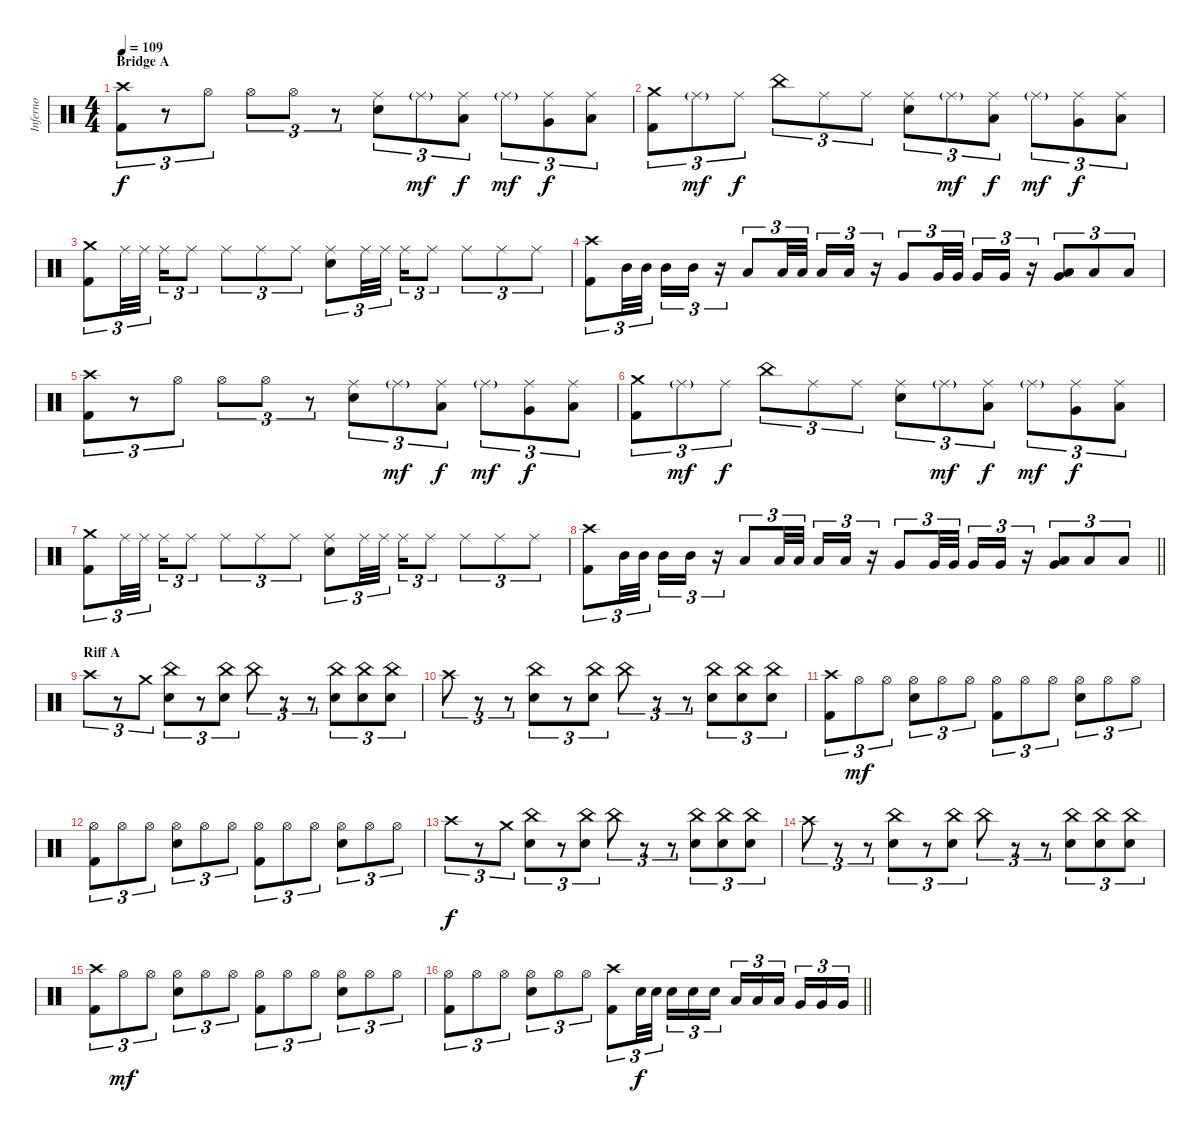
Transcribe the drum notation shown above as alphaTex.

\track ("Inferno" "Inferno") {instrument percussion}
\staff {score}
\articulation defaults
\ts (4 4)
\section ("" "Bridge A")
\tempo 109
\clef neutral
\ks c
("Crash high (hit)" "Kick (hit) 2").8{tu (3 2) dy f} r.8{tu (3 2)} "Hi-Hat (open)".8{tu (3 2)} "Hi-Hat (open)".8{tu (3 2)} "Hi-Hat (open)".8{tu (3 2)} r.8{tu (3 2)} ("Ride (middle)" "Snare (hit) 2").8{tu (3 2)} "Ride (middle)"{g}.8{tu (3 2) dy mf} ("Ride (middle)" "Low Tom (hit)").8{tu (3 2) dy f} "Ride (middle)"{g}.8{tu (3 2) dy mf} ("Ride (middle)" "Very Low Tom (hit)").8{tu (3 2) dy f} ("Ride (middle)" "Low Floor Tom (hit)").8{tu (3 2)} |
("Crash medium (hit)" "Kick (hit) 2").8{tu (3 2)} "Ride (middle)"{g}.8{tu (3 2) dy mf} "Ride (middle)".8{tu (3 2) dy f} "China (hit)".8{tu (3 2)} "Ride (middle)".8{tu (3 2)} "Ride (middle)".8{tu (3 2)} ("Ride (middle)" "Snare (hit) 2").8{tu (3 2)} "Ride (middle)"{g}.8{tu (3 2) dy mf} ("Ride (middle)" "Low Tom (hit)").8{tu (3 2) dy f} "Ride (middle)"{g}.8{tu (3 2) dy mf} ("Ride (middle)" "Very Low Tom (hit)").8{tu (3 2) dy f} ("Ride (middle)" "Low Floor Tom (hit)").8{tu (3 2)} |
("Crash medium (hit)" "Kick (hit) 2").8{tu (3 2)} "Ride (middle)".32{tu (3 2)} "Ride (middle)".32{tu (3 2) beam splitsecondary} "Ride (middle)".16{tu (3 2)} "Ride (middle)".8{tu (3 2)} "Ride (middle)".8{tu (3 2)} "Ride (middle)".8{tu (3 2)} "Ride (middle)".8{tu (3 2)} ("Ride (middle)" "Snare (hit) 2").8{tu (3 2)} "Ride (middle)".32{tu (3 2)} "Ride (middle)".32{tu (3 2) beam splitsecondary} "Ride (middle)".16{tu (3 2)} "Ride (middle)".8{tu (3 2)} "Ride (middle)".8{tu (3 2)} "Ride (middle)".8{tu (3 2)} "Ride (middle)".8{tu (3 2)} |
("Crash high (hit)" "Kick (hit) 2").8{tu (3 2)} "Mid Tom (hit)".32{tu (3 2)} "Mid Tom (hit)".32{tu (3 2) beam splitsecondary} "Mid Tom (hit)".16{tu (3 2)} "Mid Tom (hit)".16{tu (3 2)} r.16{tu (3 2)} "Low Tom (hit)".8{tu (3 2)} "Low Tom (hit)".32{tu (3 2)} "Low Tom (hit)".32{tu (3 2) beam splitsecondary} "Low Tom (hit)".16{tu (3 2)} "Low Tom (hit)".16{tu (3 2)} r.16{tu (3 2)} "Very Low Tom (hit)".8{tu (3 2)} "Very Low Tom (hit)".32{tu (3 2)} "Very Low Tom (hit)".32{tu (3 2) beam splitsecondary} "Very Low Tom (hit)".16{tu (3 2)} "Very Low Tom (hit)".16{tu (3 2)} r.16{tu (3 2)} ("Very Low Tom (hit)" "Low Floor Tom (hit)").8{tu (3 2)} "Low Floor Tom (hit)".8{tu (3 2)} "Low Floor Tom (hit)".8{tu (3 2)} |
("Crash high (hit)" "Kick (hit) 2").8{tu (3 2)} r.8{tu (3 2)} "Hi-Hat (open)".8{tu (3 2)} "Hi-Hat (open)".8{tu (3 2)} "Hi-Hat (open)".8{tu (3 2)} r.8{tu (3 2)} ("Ride (middle)" "Snare (hit) 2").8{tu (3 2)} "Ride (middle)"{g}.8{tu (3 2) dy mf} ("Ride (middle)" "Low Tom (hit)").8{tu (3 2) dy f} "Ride (middle)"{g}.8{tu (3 2) dy mf} ("Ride (middle)" "Very Low Tom (hit)").8{tu (3 2) dy f} ("Ride (middle)" "Low Floor Tom (hit)").8{tu (3 2)} |
("Crash medium (hit)" "Kick (hit) 2").8{tu (3 2)} "Ride (middle)"{g}.8{tu (3 2) dy mf} "Ride (middle)".8{tu (3 2) dy f} "China (hit)".8{tu (3 2)} "Ride (middle)".8{tu (3 2)} "Ride (middle)".8{tu (3 2)} ("Ride (middle)" "Snare (hit) 2").8{tu (3 2)} "Ride (middle)"{g}.8{tu (3 2) dy mf} ("Ride (middle)" "Low Tom (hit)").8{tu (3 2) dy f} "Ride (middle)"{g}.8{tu (3 2) dy mf} ("Ride (middle)" "Very Low Tom (hit)").8{tu (3 2) dy f} ("Ride (middle)" "Low Floor Tom (hit)").8{tu (3 2)} |
("Crash medium (hit)" "Kick (hit) 2").8{tu (3 2)} "Ride (middle)".32{tu (3 2)} "Ride (middle)".32{tu (3 2) beam splitsecondary} "Ride (middle)".16{tu (3 2)} "Ride (middle)".8{tu (3 2)} "Ride (middle)".8{tu (3 2)} "Ride (middle)".8{tu (3 2)} "Ride (middle)".8{tu (3 2)} ("Ride (middle)" "Snare (hit) 2").8{tu (3 2)} "Ride (middle)".32{tu (3 2)} "Ride (middle)".32{tu (3 2) beam splitsecondary} "Ride (middle)".16{tu (3 2)} "Ride (middle)".8{tu (3 2)} "Ride (middle)".8{tu (3 2)} "Ride (middle)".8{tu (3 2)} "Ride (middle)".8{tu (3 2)} |
\barLineRight lightlight
("Crash high (hit)" "Kick (hit) 2").8{tu (3 2)} "Mid Tom (hit)".32{tu (3 2)} "Mid Tom (hit)".32{tu (3 2) beam splitsecondary} "Mid Tom (hit)".16{tu (3 2)} "Mid Tom (hit)".16{tu (3 2)} r.16{tu (3 2)} "Low Tom (hit)".8{tu (3 2)} "Low Tom (hit)".32{tu (3 2)} "Low Tom (hit)".32{tu (3 2) beam splitsecondary} "Low Tom (hit)".16{tu (3 2)} "Low Tom (hit)".16{tu (3 2)} r.16{tu (3 2)} "Very Low Tom (hit)".8{tu (3 2)} "Very Low Tom (hit)".32{tu (3 2)} "Very Low Tom (hit)".32{tu (3 2) beam splitsecondary} "Very Low Tom (hit)".16{tu (3 2)} "Very Low Tom (hit)".16{tu (3 2)} r.16{tu (3 2)} ("Very Low Tom (hit)" "Low Floor Tom (hit)").8{tu (3 2)} "Low Floor Tom (hit)".8{tu (3 2)} "Low Floor Tom (hit)".8{tu (3 2)} |
\section ("" "Riff A")
"Crash high (hit)".8{tu (3 2)} r.8{tu (3 2)} "Crash medium (hit)".8{tu (3 2)} ("China (hit)" "Snare (hit) 2").8{tu (3 2)} r.8{tu (3 2)} ("China (hit)" "Snare (hit) 2").8{tu (3 2)} "China (hit)".8{tu (3 2)} r.8{tu (3 2)} r.8{tu (3 2)} ("China (hit)" "Snare (hit) 2").8{tu (3 2)} ("China (hit)" "Snare (hit) 2").8{tu (3 2)} ("China (hit)" "Snare (hit) 2").8{tu (3 2)} |
"Crash high (hit)".8{tu (3 2)} r.8{tu (3 2)} r.8{tu (3 2)} ("China (hit)" "Snare (hit) 2").8{tu (3 2)} r.8{tu (3 2)} ("China (hit)" "Snare (hit) 2").8{tu (3 2)} "China (hit)".8{tu (3 2)} r.8{tu (3 2)} r.8{tu (3 2)} ("China (hit)" "Snare (hit) 2").8{tu (3 2)} ("China (hit)" "Snare (hit) 2").8{tu (3 2)} ("China (hit)" "Snare (hit) 2").8{tu (3 2)} |
("Crash high (hit)" "Kick (hit) 2").8{tu (3 2)} "Hi-Hat (open)".8{tu (3 2) dy mf} "Hi-Hat (open)".8{tu (3 2)} ("Hi-Hat (open)" "Snare (hit) 2").8{tu (3 2)} "Hi-Hat (open)".8{tu (3 2)} "Hi-Hat (open)".8{tu (3 2)} ("Hi-Hat (open)" "Kick (hit) 2").8{tu (3 2)} "Hi-Hat (open)".8{tu (3 2)} "Hi-Hat (open)".8{tu (3 2)} ("Hi-Hat (open)" "Snare (hit) 2").8{tu (3 2)} "Hi-Hat (open)".8{tu (3 2)} "Hi-Hat (open)".8{tu (3 2)} |
("Hi-Hat (open)" "Kick (hit) 2").8{tu (3 2)} "Hi-Hat (open)".8{tu (3 2)} "Hi-Hat (open)".8{tu (3 2)} ("Hi-Hat (open)" "Snare (hit) 2").8{tu (3 2)} "Hi-Hat (open)".8{tu (3 2)} "Hi-Hat (open)".8{tu (3 2)} ("Hi-Hat (open)" "Kick (hit) 2").8{tu (3 2)} "Hi-Hat (open)".8{tu (3 2)} "Hi-Hat (open)".8{tu (3 2)} ("Hi-Hat (open)" "Snare (hit) 2").8{tu (3 2)} "Hi-Hat (open)".8{tu (3 2)} "Hi-Hat (open)".8{tu (3 2)} |
"Crash high (hit)".8{tu (3 2) dy f} r.8{tu (3 2)} "Crash medium (hit)".8{tu (3 2)} ("China (hit)" "Snare (hit) 2").8{tu (3 2)} r.8{tu (3 2)} ("China (hit)" "Snare (hit) 2").8{tu (3 2)} "China (hit)".8{tu (3 2)} r.8{tu (3 2)} r.8{tu (3 2)} ("China (hit)" "Snare (hit) 2").8{tu (3 2)} ("China (hit)" "Snare (hit) 2").8{tu (3 2)} ("China (hit)" "Snare (hit) 2").8{tu (3 2)} |
"Crash high (hit)".8{tu (3 2)} r.8{tu (3 2)} r.8{tu (3 2)} ("China (hit)" "Snare (hit) 2").8{tu (3 2)} r.8{tu (3 2)} ("China (hit)" "Snare (hit) 2").8{tu (3 2)} "China (hit)".8{tu (3 2)} r.8{tu (3 2)} r.8{tu (3 2)} ("China (hit)" "Snare (hit) 2").8{tu (3 2)} ("China (hit)" "Snare (hit) 2").8{tu (3 2)} ("China (hit)" "Snare (hit) 2").8{tu (3 2)} |
("Crash high (hit)" "Kick (hit) 2").8{tu (3 2)} "Hi-Hat (open)".8{tu (3 2) dy mf} "Hi-Hat (open)".8{tu (3 2)} ("Hi-Hat (open)" "Snare (hit) 2").8{tu (3 2)} "Hi-Hat (open)".8{tu (3 2)} "Hi-Hat (open)".8{tu (3 2)} ("Hi-Hat (open)" "Kick (hit) 2").8{tu (3 2)} "Hi-Hat (open)".8{tu (3 2)} "Hi-Hat (open)".8{tu (3 2)} ("Hi-Hat (open)" "Snare (hit) 2").8{tu (3 2)} "Hi-Hat (open)".8{tu (3 2)} "Hi-Hat (open)".8{tu (3 2)} |
\barLineRight lightlight
("Hi-Hat (open)" "Kick (hit) 2").8{tu (3 2)} "Hi-Hat (open)".8{tu (3 2)} "Hi-Hat (open)".8{tu (3 2)} ("Hi-Hat (open)" "Snare (hit) 2").8{tu (3 2)} "Hi-Hat (open)".8{tu (3 2)} "Hi-Hat (open)".8{tu (3 2)} ("Crash high (hit)" "Kick (hit) 2").8{tu (3 2)} "Snare (hit) 2".32{tu (3 2) dy f} "Snare (hit) 2".32{tu (3 2) beam splitsecondary} "Snare (hit) 2".16{tu (3 2)} "Snare (hit) 2".16{tu (3 2)} "Snare (hit) 2".16{tu (3 2)} "Low Tom (hit)".16{tu (3 2)} "Low Tom (hit)".16{tu (3 2)} "Low Tom (hit)".16{tu (3 2) beam splitsecondary} "Very Low Tom (hit)".16{tu (3 2)} "Very Low Tom (hit)".16{tu (3 2)} "Very Low Tom (hit)".16{tu (3 2)}
